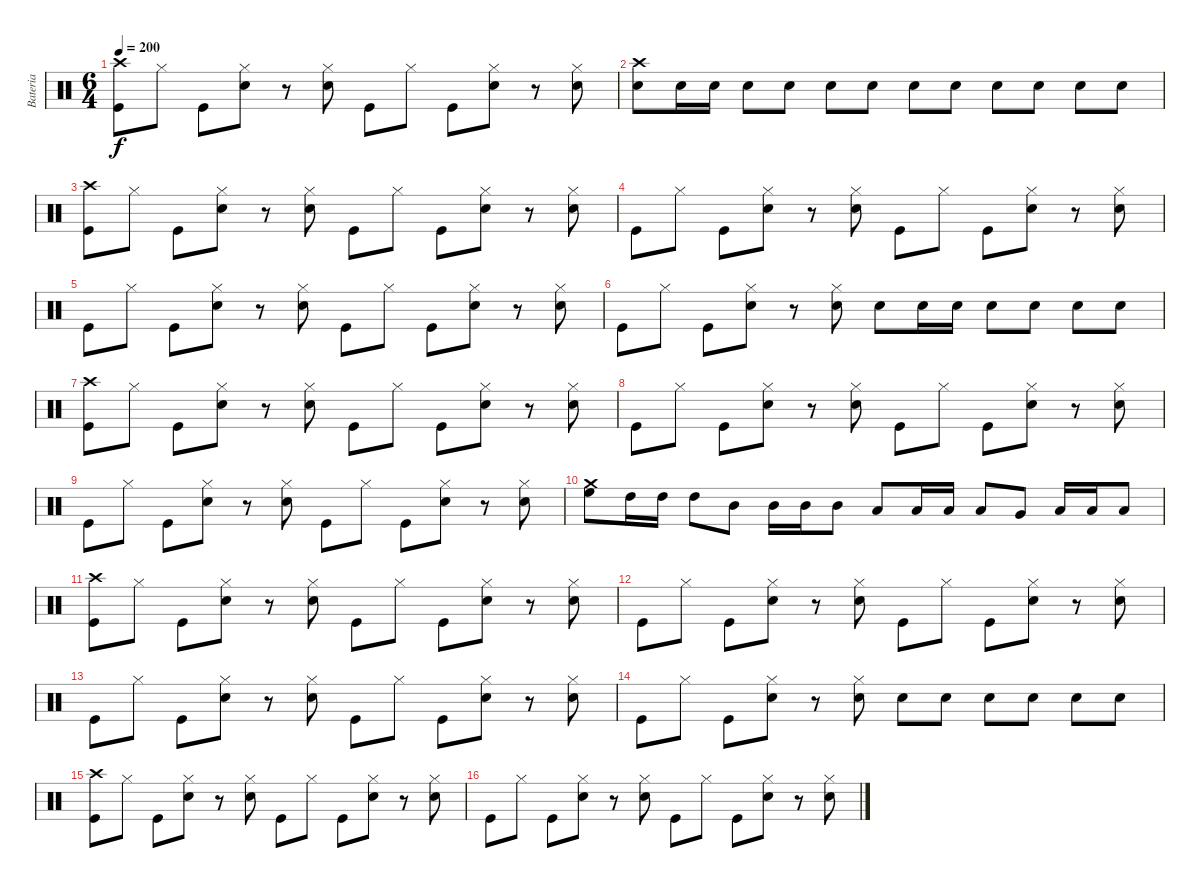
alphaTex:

\track ("Bateria" "Bateria") {instrument percussion}
\staff {score}
\articulation defaults
\ts (6 4)
\tempo 200
\clef neutral
\ks c
("Crash high (hit)" "Kick (hit)").8{dy f} "Hi-Hat (closed)".8 "Kick (hit)".8 ("Electric Snare (hit)" "Hi-Hat (closed)").8 r.8 ("Electric Snare (hit)" "Hi-Hat (closed)").8 "Kick (hit)".8 "Hi-Hat (closed)".8 "Kick (hit)".8 ("Electric Snare (hit)" "Hi-Hat (closed)").8 r.8 ("Electric Snare (hit)" "Hi-Hat (closed)").8 |
("Electric Snare (hit)" "Crash high (hit)").8 "Electric Snare (hit)".16 "Electric Snare (hit)".16 "Electric Snare (hit)".8 "Electric Snare (hit)".8 "Electric Snare (hit)".8 "Electric Snare (hit)".8 "Electric Snare (hit)".8 "Electric Snare (hit)".8 "Electric Snare (hit)".8 "Electric Snare (hit)".8 "Electric Snare (hit)".8 "Electric Snare (hit)".8 |
("Kick (hit)" "Crash high (hit)").8 "Hi-Hat (closed)".8 "Kick (hit)".8 ("Electric Snare (hit)" "Hi-Hat (closed)").8 r.8 ("Electric Snare (hit)" "Hi-Hat (closed)").8 "Kick (hit)".8 "Hi-Hat (closed)".8 "Kick (hit)".8 ("Electric Snare (hit)" "Hi-Hat (closed)").8 r.8 ("Electric Snare (hit)" "Hi-Hat (closed)").8 |
"Kick (hit)".8 "Hi-Hat (closed)".8 "Kick (hit)".8 ("Electric Snare (hit)" "Hi-Hat (closed)").8 r.8 ("Electric Snare (hit)" "Hi-Hat (closed)").8 "Kick (hit)".8 "Hi-Hat (closed)".8 "Kick (hit)".8 ("Electric Snare (hit)" "Hi-Hat (closed)").8 r.8 ("Electric Snare (hit)" "Hi-Hat (closed)").8 |
"Kick (hit)".8 "Hi-Hat (closed)".8 "Kick (hit)".8 ("Electric Snare (hit)" "Hi-Hat (closed)").8 r.8 ("Electric Snare (hit)" "Hi-Hat (closed)").8 "Kick (hit)".8 "Hi-Hat (closed)".8 "Kick (hit)".8 ("Electric Snare (hit)" "Hi-Hat (closed)").8 r.8 ("Electric Snare (hit)" "Hi-Hat (closed)").8 |
"Kick (hit)".8 "Hi-Hat (closed)".8 "Kick (hit)".8 ("Electric Snare (hit)" "Hi-Hat (closed)").8 r.8 ("Electric Snare (hit)" "Hi-Hat (closed)").8 "Electric Snare (hit)".8 "Electric Snare (hit)".16 "Electric Snare (hit)".16 "Electric Snare (hit)".8 "Electric Snare (hit)".8 "Electric Snare (hit)".8 "Electric Snare (hit)".8 |
("Kick (hit)" "Crash high (hit)").8 "Hi-Hat (closed)".8 "Kick (hit)".8 ("Electric Snare (hit)" "Hi-Hat (closed)").8 r.8 ("Electric Snare (hit)" "Hi-Hat (closed)").8 "Kick (hit)".8 "Hi-Hat (closed)".8 "Kick (hit)".8 ("Electric Snare (hit)" "Hi-Hat (closed)").8 r.8 ("Electric Snare (hit)" "Hi-Hat (closed)").8 |
"Kick (hit)".8 "Hi-Hat (closed)".8 "Kick (hit)".8 ("Electric Snare (hit)" "Hi-Hat (closed)").8 r.8 ("Electric Snare (hit)" "Hi-Hat (closed)").8 "Kick (hit)".8 "Hi-Hat (closed)".8 "Kick (hit)".8 ("Electric Snare (hit)" "Hi-Hat (closed)").8 r.8 ("Electric Snare (hit)" "Hi-Hat (closed)").8 |
"Kick (hit)".8 "Hi-Hat (closed)".8 "Kick (hit)".8 ("Electric Snare (hit)" "Hi-Hat (closed)").8 r.8 ("Electric Snare (hit)" "Hi-Hat (closed)").8 "Kick (hit)".8 "Hi-Hat (closed)".8 "Kick (hit)".8 ("Electric Snare (hit)" "Hi-Hat (closed)").8 r.8 ("Electric Snare (hit)" "Hi-Hat (closed)").8 |
("Crash medium (hit)" "High Floor Tom (hit)").8 "High Tom (hit)".16 "High Tom (hit)".16 "High Tom (hit)".8 "Mid Tom (hit)".8 "Mid Tom (hit)".16 "Mid Tom (hit)".16 "Mid Tom (hit)".8 "Low Tom (hit)".8 "Low Tom (hit)".16 "Low Tom (hit)".16 "Low Tom (hit)".8 "Very Low Tom (hit)".8 "Low Floor Tom (hit)".16 "Low Floor Tom (hit)".16 "Low Floor Tom (hit)".8 |
("Kick (hit)" "Crash high (hit)").8 "Hi-Hat (closed)".8 "Kick (hit)".8 ("Electric Snare (hit)" "Hi-Hat (closed)").8 r.8 ("Electric Snare (hit)" "Hi-Hat (closed)").8 "Kick (hit)".8 "Hi-Hat (closed)".8 "Kick (hit)".8 ("Electric Snare (hit)" "Hi-Hat (closed)").8 r.8 ("Electric Snare (hit)" "Hi-Hat (closed)").8 |
"Kick (hit)".8 "Hi-Hat (closed)".8 "Kick (hit)".8 ("Electric Snare (hit)" "Hi-Hat (closed)").8 r.8 ("Electric Snare (hit)" "Hi-Hat (closed)").8 "Kick (hit)".8 "Hi-Hat (closed)".8 "Kick (hit)".8 ("Electric Snare (hit)" "Hi-Hat (closed)").8 r.8 ("Electric Snare (hit)" "Hi-Hat (closed)").8 |
"Kick (hit)".8 "Hi-Hat (closed)".8 "Kick (hit)".8 ("Electric Snare (hit)" "Hi-Hat (closed)").8 r.8 ("Electric Snare (hit)" "Hi-Hat (closed)").8 "Kick (hit)".8 "Hi-Hat (closed)".8 "Kick (hit)".8 ("Electric Snare (hit)" "Hi-Hat (closed)").8 r.8 ("Electric Snare (hit)" "Hi-Hat (closed)").8 |
"Kick (hit)".8 "Hi-Hat (closed)".8 "Kick (hit)".8 ("Electric Snare (hit)" "Hi-Hat (closed)").8 r.8 ("Electric Snare (hit)" "Hi-Hat (closed)").8 "Electric Snare (hit)".8 "Electric Snare (hit)".8 "Electric Snare (hit)".8 "Electric Snare (hit)".8 "Electric Snare (hit)".8 "Electric Snare (hit)".8 |
("Kick (hit)" "Crash high (hit)").8 "Hi-Hat (closed)".8 "Kick (hit)".8 ("Electric Snare (hit)" "Hi-Hat (closed)").8 r.8 ("Electric Snare (hit)" "Hi-Hat (closed)").8 "Kick (hit)".8 "Hi-Hat (closed)".8 "Kick (hit)".8 ("Electric Snare (hit)" "Hi-Hat (closed)").8 r.8 ("Electric Snare (hit)" "Hi-Hat (closed)").8 |
"Kick (hit)".8 "Hi-Hat (closed)".8 "Kick (hit)".8 ("Electric Snare (hit)" "Hi-Hat (closed)").8 r.8 ("Electric Snare (hit)" "Hi-Hat (closed)").8 "Kick (hit)".8 "Hi-Hat (closed)".8 "Kick (hit)".8 ("Electric Snare (hit)" "Hi-Hat (closed)").8 r.8 ("Electric Snare (hit)" "Hi-Hat (closed)").8
